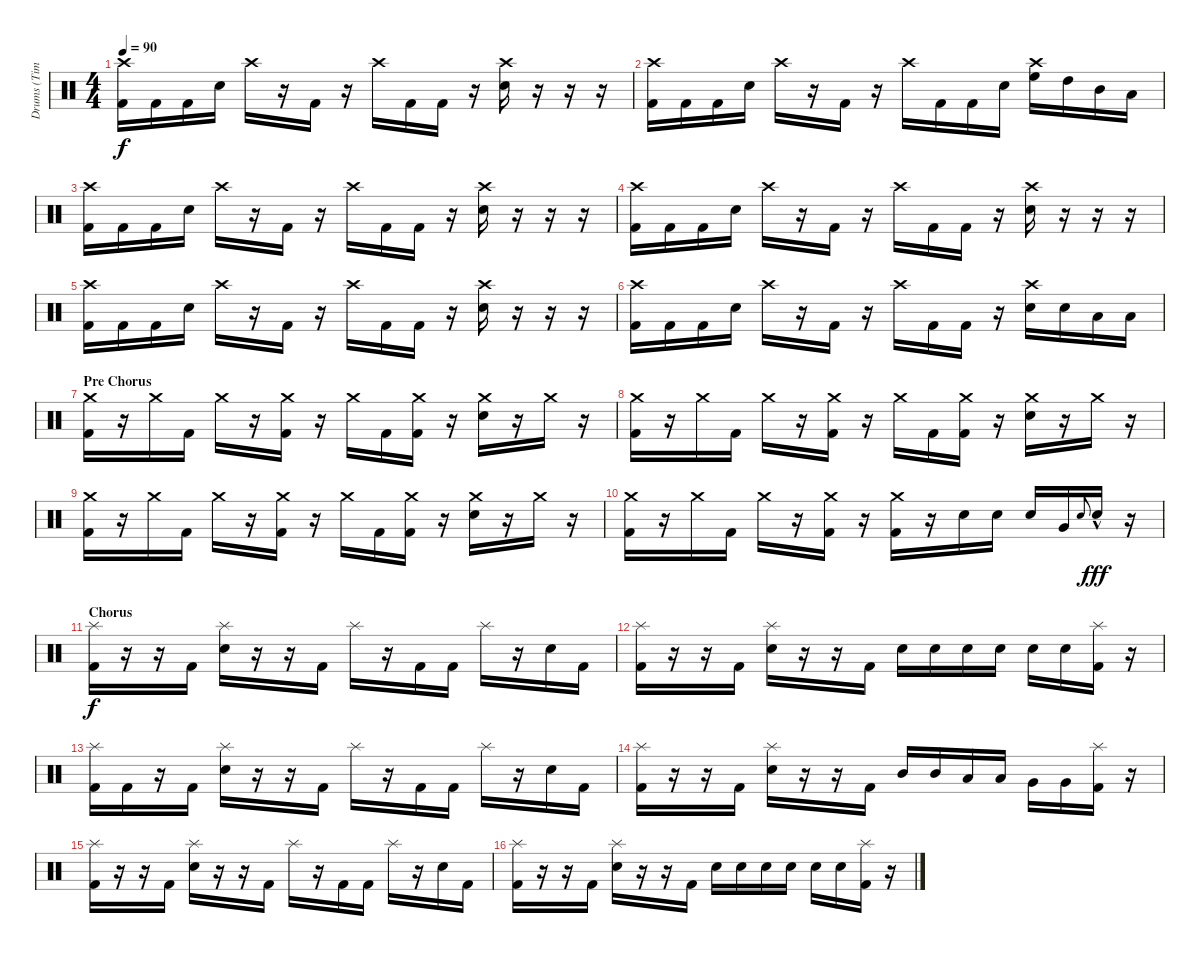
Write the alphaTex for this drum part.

\track ("Drums (Tim Watts)" "Drums (Tim") {instrument percussion}
\staff {score}
\articulation defaults
\ts (4 4)
\tempo 90
\clef neutral
\ks c
("Crash high (hit)" "Kick (hit) 2").16{dy f} "Kick (hit) 2".16 "Kick (hit) 2".16 "Snare (hit) 2".16 "Crash high (hit)".16 r.16 "Kick (hit) 2".16 r.16 "Crash high (hit)".16 "Kick (hit) 2".16 "Kick (hit) 2".16 r.16 ("Crash high (hit)" "Snare (hit) 2").16 r.16 r.16 r.16 |
("Crash high (hit)" "Kick (hit) 2").16 "Kick (hit) 2".16 "Kick (hit) 2".16 "Snare (hit) 2".16 "Crash high (hit)".16 r.16 "Kick (hit) 2".16 r.16 "Crash high (hit)".16 "Kick (hit) 2".16 "Kick (hit) 2".16 "Snare (hit) 2".16 ("Crash high (hit)" "High Floor Tom (hit)").16 "High Tom (hit)".16 "Mid Tom (hit)".16 "Low Tom (hit)".16 |
("Crash high (hit)" "Kick (hit) 2").16 "Kick (hit) 2".16 "Kick (hit) 2".16 "Snare (hit) 2".16 "Crash high (hit)".16 r.16 "Kick (hit) 2".16 r.16 "Crash high (hit)".16 "Kick (hit) 2".16 "Kick (hit) 2".16 r.16 ("Crash high (hit)" "Snare (hit) 2").16 r.16 r.16 r.16 |
("Crash high (hit)" "Kick (hit) 2").16 "Kick (hit) 2".16 "Kick (hit) 2".16 "Snare (hit) 2".16 "Crash high (hit)".16 r.16 "Kick (hit) 2".16 r.16 "Crash high (hit)".16 "Kick (hit) 2".16 "Kick (hit) 2".16 r.16 ("Crash high (hit)" "Snare (hit) 2").16 r.16 r.16 r.16 |
("Crash high (hit)" "Kick (hit) 2").16 "Kick (hit) 2".16 "Kick (hit) 2".16 "Snare (hit) 2".16 "Crash high (hit)".16 r.16 "Kick (hit) 2".16 r.16 "Crash high (hit)".16 "Kick (hit) 2".16 "Kick (hit) 2".16 r.16 ("Crash high (hit)" "Snare (hit) 2").16 r.16 r.16 r.16 |
("Crash high (hit)" "Kick (hit) 2").16 "Kick (hit) 2".16 "Kick (hit) 2".16 "Snare (hit) 2".16 "Crash high (hit)".16 r.16 "Kick (hit) 2".16 r.16 "Crash high (hit)".16 "Kick (hit) 2".16 "Kick (hit) 2".16 r.16 ("Crash high (hit)" "Snare (hit) 2").16 "Snare (hit) 2".16 "Low Tom (hit)".16 "Low Tom (hit)".16 |
\section ("" "Pre Chorus")
("Crash medium (hit)" "Kick (hit) 2").16 r.16 "Crash medium (hit)".16 "Kick (hit) 2".16 "Crash medium (hit)".16 r.16 ("Crash medium (hit)" "Kick (hit) 2").16 r.16 "Crash medium (hit)".16 "Kick (hit) 2".16 ("Crash medium (hit)" "Kick (hit) 2").16 r.16 ("Crash medium (hit)" "Snare (hit) 2").16 r.16 "Crash medium (hit)".16 r.16 |
("Crash medium (hit)" "Kick (hit) 2").16 r.16 "Crash medium (hit)".16 "Kick (hit) 2".16 "Crash medium (hit)".16 r.16 ("Crash medium (hit)" "Kick (hit) 2").16 r.16 "Crash medium (hit)".16 "Kick (hit) 2".16 ("Crash medium (hit)" "Kick (hit) 2").16 r.16 ("Crash medium (hit)" "Snare (hit) 2").16 r.16 "Crash medium (hit)".16 r.16 |
("Crash medium (hit)" "Kick (hit) 2").16 r.16 "Crash medium (hit)".16 "Kick (hit) 2".16 "Crash medium (hit)".16 r.16 ("Crash medium (hit)" "Kick (hit) 2").16 r.16 "Crash medium (hit)".16 "Kick (hit) 2".16 ("Crash medium (hit)" "Kick (hit) 2").16 r.16 ("Crash medium (hit)" "Snare (hit) 2").16 r.16 "Crash medium (hit)".16 r.16 |
("Crash medium (hit)" "Kick (hit) 2").16 r.16 "Crash medium (hit)".16 "Kick (hit) 2".16 "Crash medium (hit)".16 r.16 ("Crash medium (hit)" "Kick (hit) 2").16 r.16 ("Crash medium (hit)" "Kick (hit) 2").16 r.16 "Snare (hit) 2".16 "Snare (hit) 2".16 "Snare (hit) 2".16 "Very Low Tom (hit)".16 "Snare (hit) 2".8{gr onbeat} "Snare (hit) 2"{hac}.16{dy fff} r.16 |
\section ("" "Chorus")
("Splash (hit)" "Kick (hit) 2").16{dy f} r.16 r.16 "Kick (hit) 2".16 ("Splash (hit)" "Snare (hit) 2").16 r.16 r.16 "Kick (hit) 2".16 "Splash (hit)".16 r.16 "Kick (hit) 2".16 "Kick (hit) 2".16 "Splash (hit)".16 r.16 "Snare (hit) 2".16 "Kick (hit) 2".16 |
("Splash (hit)" "Kick (hit) 2").16 r.16 r.16 "Kick (hit) 2".16 ("Splash (hit)" "Snare (hit) 2").16 r.16 r.16 "Kick (hit) 2".16 "Snare (hit) 2".16 "Snare (hit) 2".16 "Snare (hit) 2".16 "Snare (hit) 2".16 "Snare (hit) 2".16 "Snare (hit) 2".16 ("Splash (hit)" "Kick (hit) 2").16 r.16 |
("Splash (hit)" "Kick (hit) 2").16 "Kick (hit) 2".16 r.16 "Kick (hit) 2".16 ("Splash (hit)" "Snare (hit) 2").16 r.16 r.16 "Kick (hit) 2".16 "Splash (hit)".16 r.16 "Kick (hit) 2".16 "Kick (hit) 2".16 "Splash (hit)".16 r.16 "Snare (hit) 2".16 "Kick (hit) 2".16 |
("Splash (hit)" "Kick (hit) 2").16 r.16 r.16 "Kick (hit) 2".16 ("Splash (hit)" "Snare (hit) 2").16 r.16 r.16 "Kick (hit) 2".16 "Mid Tom (hit)".16 "Mid Tom (hit)".16 "Low Tom (hit)".16 "Low Tom (hit)".16 "Very Low Tom (hit)".16 "Very Low Tom (hit)".16 ("Splash (hit)" "Kick (hit) 2").16 r.16 |
("Splash (hit)" "Kick (hit) 2").16 r.16 r.16 "Kick (hit) 2".16 ("Splash (hit)" "Snare (hit) 2").16 r.16 r.16 "Kick (hit) 2".16 "Splash (hit)".16 r.16 "Kick (hit) 2".16 "Kick (hit) 2".16 "Splash (hit)".16 r.16 "Snare (hit) 2".16 "Kick (hit) 2".16 |
("Splash (hit)" "Kick (hit) 2").16 r.16 r.16 "Kick (hit) 2".16 ("Splash (hit)" "Snare (hit) 2").16 r.16 r.16 "Kick (hit) 2".16 "Snare (hit) 2".16 "Snare (hit) 2".16 "Snare (hit) 2".16 "Snare (hit) 2".16 "Snare (hit) 2".16 "Snare (hit) 2".16 ("Splash (hit)" "Kick (hit) 2").16 r.16
